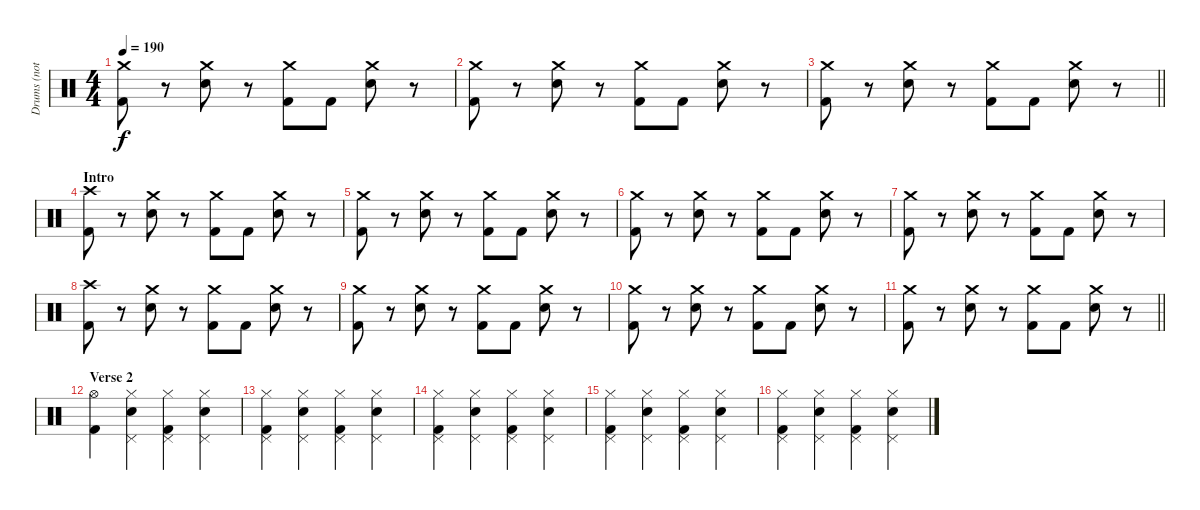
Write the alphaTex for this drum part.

\track ("Drums (not correct)" "Drums (not") {instrument percussion}
\staff {score}
\articulation defaults
\ts (4 4)
\tempo 190
\clef neutral
\ks c
("Crash medium (hit)" "Kick (hit) 2").8{dy f} r.8 ("Crash medium (hit)" "Electric Snare (hit)").8 r.8 ("Crash medium (hit)" "Kick (hit) 2").8 "Kick (hit) 2".8 ("Crash medium (hit)" "Electric Snare (hit)").8 r.8 |
("Crash medium (hit)" "Kick (hit) 2").8 r.8 ("Crash medium (hit)" "Electric Snare (hit)").8 r.8 ("Crash medium (hit)" "Kick (hit) 2").8 "Kick (hit) 2".8 ("Crash medium (hit)" "Electric Snare (hit)").8 r.8 |
\barLineRight lightlight
("Crash medium (hit)" "Kick (hit) 2").8 r.8 ("Crash medium (hit)" "Electric Snare (hit)").8 r.8 ("Crash medium (hit)" "Kick (hit) 2").8 "Kick (hit) 2".8 ("Crash medium (hit)" "Electric Snare (hit)").8 r.8 |
\section ("" "Intro")
("Crash high (hit)" "Kick (hit) 2").8 r.8 ("Crash medium (hit)" "Electric Snare (hit)").8 r.8 ("Crash medium (hit)" "Kick (hit) 2").8 "Kick (hit) 2".8 ("Crash medium (hit)" "Electric Snare (hit)").8 r.8 |
("Crash medium (hit)" "Kick (hit) 2").8 r.8 ("Crash medium (hit)" "Electric Snare (hit)").8 r.8 ("Crash medium (hit)" "Kick (hit) 2").8 "Kick (hit) 2".8 ("Crash medium (hit)" "Electric Snare (hit)").8 r.8 |
("Crash medium (hit)" "Kick (hit) 2").8 r.8 ("Crash medium (hit)" "Electric Snare (hit)").8 r.8 ("Crash medium (hit)" "Kick (hit) 2").8 "Kick (hit) 2".8 ("Crash medium (hit)" "Electric Snare (hit)").8 r.8 |
("Crash medium (hit)" "Kick (hit) 2").8 r.8 ("Crash medium (hit)" "Electric Snare (hit)").8 r.8 ("Crash medium (hit)" "Kick (hit) 2").8 "Kick (hit) 2".8 ("Crash medium (hit)" "Electric Snare (hit)").8 r.8 |
("Crash high (hit)" "Kick (hit) 2").8 r.8 ("Crash medium (hit)" "Electric Snare (hit)").8 r.8 ("Crash medium (hit)" "Kick (hit) 2").8 "Kick (hit) 2".8 ("Crash medium (hit)" "Electric Snare (hit)").8 r.8 |
("Crash medium (hit)" "Kick (hit) 2").8 r.8 ("Crash medium (hit)" "Electric Snare (hit)").8 r.8 ("Crash medium (hit)" "Kick (hit) 2").8 "Kick (hit) 2".8 ("Crash medium (hit)" "Electric Snare (hit)").8 r.8 |
("Crash medium (hit)" "Kick (hit) 2").8 r.8 ("Crash medium (hit)" "Electric Snare (hit)").8 r.8 ("Crash medium (hit)" "Kick (hit) 2").8 "Kick (hit) 2".8 ("Crash medium (hit)" "Electric Snare (hit)").8 r.8 |
\barLineRight lightlight
("Crash medium (hit)" "Kick (hit) 2").8 r.8 ("Crash medium (hit)" "Electric Snare (hit)").8 r.8 ("Crash medium (hit)" "Kick (hit) 2").8 "Kick (hit) 2".8 ("Crash medium (hit)" "Electric Snare (hit)").8 r.8 |
\section ("" "Verse 2")
("Hi-Hat (open)" "Kick (hit) 2").4 ("Pedal Hi-Hat (hit)" "Hi-Hat (closed)" "Electric Snare (hit)").4 ("Pedal Hi-Hat (hit)" "Hi-Hat (closed)" "Kick (hit) 2").4 ("Pedal Hi-Hat (hit)" "Hi-Hat (closed)" "Electric Snare (hit)").4 |
("Pedal Hi-Hat (hit)" "Hi-Hat (closed)" "Kick (hit) 2").4 ("Pedal Hi-Hat (hit)" "Hi-Hat (closed)" "Electric Snare (hit)").4 ("Pedal Hi-Hat (hit)" "Hi-Hat (closed)" "Kick (hit) 2").4 ("Pedal Hi-Hat (hit)" "Hi-Hat (closed)" "Electric Snare (hit)").4 |
("Pedal Hi-Hat (hit)" "Hi-Hat (closed)" "Kick (hit) 2").4 ("Pedal Hi-Hat (hit)" "Hi-Hat (closed)" "Electric Snare (hit)").4 ("Pedal Hi-Hat (hit)" "Hi-Hat (closed)" "Kick (hit) 2").4 ("Pedal Hi-Hat (hit)" "Hi-Hat (closed)" "Electric Snare (hit)").4 |
("Pedal Hi-Hat (hit)" "Hi-Hat (closed)" "Kick (hit) 2").4 ("Pedal Hi-Hat (hit)" "Hi-Hat (closed)" "Electric Snare (hit)").4 ("Pedal Hi-Hat (hit)" "Hi-Hat (closed)" "Kick (hit) 2").4 ("Pedal Hi-Hat (hit)" "Hi-Hat (closed)" "Electric Snare (hit)").4 |
("Pedal Hi-Hat (hit)" "Hi-Hat (closed)" "Kick (hit) 2").4 ("Pedal Hi-Hat (hit)" "Hi-Hat (closed)" "Electric Snare (hit)").4 ("Pedal Hi-Hat (hit)" "Hi-Hat (closed)" "Kick (hit) 2").4 ("Pedal Hi-Hat (hit)" "Hi-Hat (closed)" "Electric Snare (hit)").4
